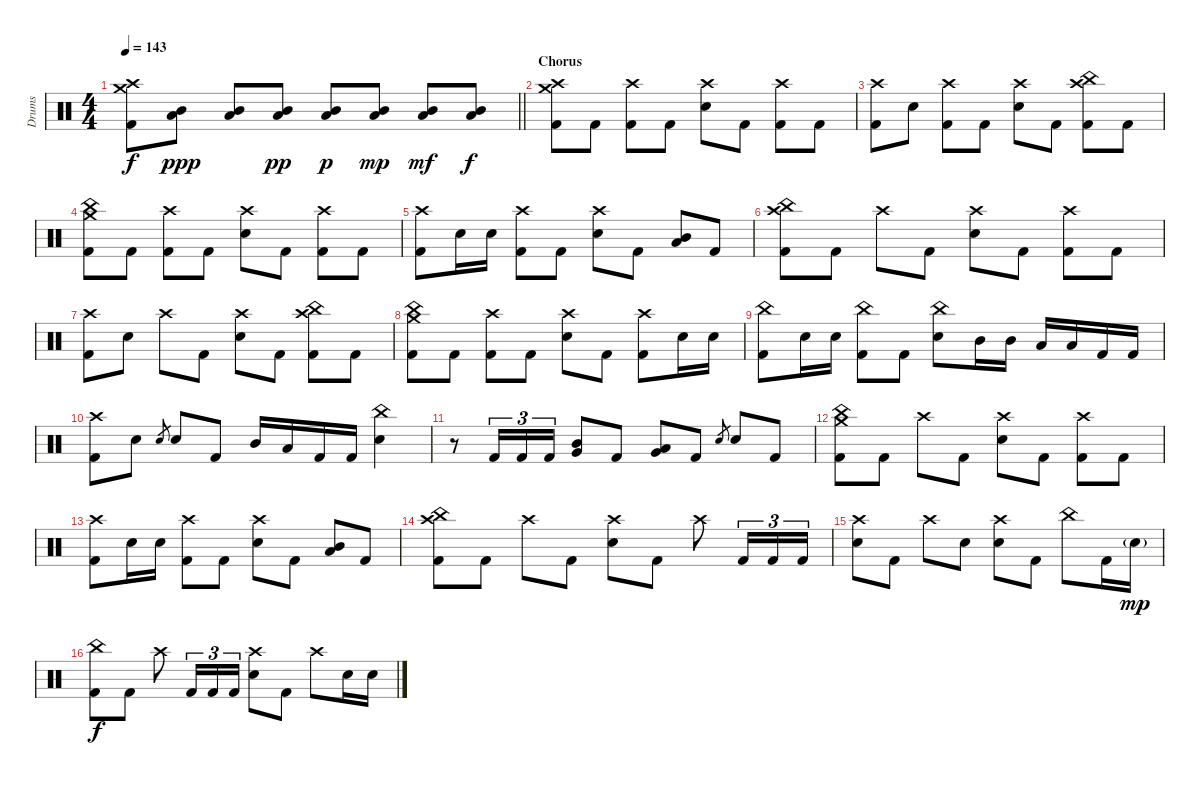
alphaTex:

\track ("Drums" "Drums") {instrument percussion}
\staff {score}
\articulation defaults
\ts (4 4)
\tempo 143
\clef neutral
\barLineRight lightlight
\ks c
("Crash high (hit)" "Crash medium (hit)" "Kick (hit) 2").8{dy f} ("Mid Tom (hit)" "Low Floor Tom (hit)").8{dy ppp} ("Mid Tom (hit)" "Low Floor Tom (hit)").8 ("Mid Tom (hit)" "Low Floor Tom (hit)").8{dy pp} ("Mid Tom (hit)" "Low Floor Tom (hit)").8{dy p} ("Mid Tom (hit)" "Low Floor Tom (hit)").8{dy mp} ("Mid Tom (hit)" "Low Floor Tom (hit)").8{dy mf} ("Mid Tom (hit)" "Low Floor Tom (hit)").8{dy f} |
\section ("" "Chorus")
("Crash high (hit)" "Crash medium (hit)" "Kick (hit) 2").8 "Kick (hit) 2".8 ("Crash high (hit)" "Kick (hit) 2").8 "Kick (hit) 2".8 ("Crash high (hit)" "Electric Snare (hit)").8 "Kick (hit) 2".8 ("Crash high (hit)" "Kick (hit) 2").8 "Kick (hit) 2".8 |
("Crash high (hit)" "Kick (hit) 2").8 "Electric Snare (hit)".8 ("Crash high (hit)" "Kick (hit) 2").8 "Kick (hit) 2".8 ("Crash high (hit)" "Electric Snare (hit)").8 "Kick (hit) 2".8 ("Crash high (hit)" "China (hit)" "Kick (hit) 2").8 "Kick (hit) 2".8 |
("Crash medium (hit)" "China (hit)" "Kick (hit) 2").8 "Kick (hit) 2".8 ("Crash high (hit)" "Kick (hit) 2").8 "Kick (hit) 2".8 ("Crash high (hit)" "Electric Snare (hit)").8 "Kick (hit) 2".8 ("Crash high (hit)" "Kick (hit) 2").8 "Kick (hit) 2".8 |
("Crash high (hit)" "Kick (hit) 2").8 "Electric Snare (hit)".16 "Electric Snare (hit)".16 ("Crash high (hit)" "Kick (hit) 2").8 "Kick (hit) 2".8 ("Crash high (hit)" "Electric Snare (hit)").8 "Kick (hit) 2".8 ("Mid Tom (hit)" "Low Floor Tom (hit)").8{bu 60} "Kick (hit) 2".8 |
("Crash high (hit)" "China (hit)" "Kick (hit) 2").8 "Kick (hit) 2".8 "Crash high (hit)".8 "Kick (hit) 2".8 ("Crash high (hit)" "Electric Snare (hit)").8 "Kick (hit) 2".8 ("Crash high (hit)" "Kick (hit) 2").8 "Kick (hit) 2".8 |
("Crash high (hit)" "Kick (hit) 2").8 "Electric Snare (hit)".8 "Crash high (hit)".8 "Kick (hit) 2".8 ("Crash high (hit)" "Electric Snare (hit)").8 "Kick (hit) 2".8 ("Crash high (hit)" "China (hit)" "Kick (hit) 2").8 "Kick (hit) 2".8 |
("Crash medium (hit)" "China (hit)" "Kick (hit) 2").8 "Kick (hit) 2".8 ("Crash high (hit)" "Kick (hit) 2").8 "Kick (hit) 2".8 ("Crash high (hit)" "Electric Snare (hit)").8 "Kick (hit) 2".8 ("Crash high (hit)" "Kick (hit) 2").8 "Electric Snare (hit)".16 "Electric Snare (hit)".16 |
("China (hit)" "Kick (hit) 2").8 "Electric Snare (hit)".16 "Electric Snare (hit)".16 ("China (hit)" "Kick (hit) 2").8 "Kick (hit) 2".8 ("China (hit)" "Electric Snare (hit)").8 "Mid Tom (hit)".16 "Mid Tom (hit)".16 "Low Floor Tom (hit)".16 "Low Floor Tom (hit)".16 "Kick (hit) 2".16 "Kick (hit) 2".16 |
("Crash high (hit)" "Kick (hit) 2").8 "Electric Snare (hit)".8 "Electric Snare (hit)".8{gr} "Electric Snare (hit)".8 "Kick (hit) 2".8 "Mid Tom (hit)".16 "Low Floor Tom (hit)".16 "Kick (hit) 2".16 "Kick (hit) 2".16 ("China (hit)" "Electric Snare (hit)").4 |
r.8 "Kick (hit) 2".16{tu (3 2)} "Kick (hit) 2".16{tu (3 2)} "Kick (hit) 2".16{tu (3 2)} ("Mid Tom (hit)" "Very Low Tom (hit)").8{bu 60} "Kick (hit) 2".8 ("Very Low Tom (hit)" "Low Floor Tom (hit)").8{bu 60} "Kick (hit) 2".8 "Electric Snare (hit)".8{gr} "Electric Snare (hit)".8 "Kick (hit) 2".8 |
("Crash medium (hit)" "China (hit)" "Kick (hit) 2").8 "Kick (hit) 2".8 "Crash high (hit)".8 "Kick (hit) 2".8 ("Crash high (hit)" "Electric Snare (hit)").8 "Kick (hit) 2".8 ("Crash high (hit)" "Kick (hit) 2").8 "Kick (hit) 2".8 |
("Crash high (hit)" "Kick (hit) 2").8 "Electric Snare (hit)".16 "Electric Snare (hit)".16 ("Crash high (hit)" "Kick (hit) 2").8 "Kick (hit) 2".8 ("Crash high (hit)" "Electric Snare (hit)").8 "Kick (hit) 2".8 ("Mid Tom (hit)" "Low Floor Tom (hit)").8{bu 60} "Kick (hit) 2".8 |
("Crash high (hit)" "China (hit)" "Kick (hit) 2").8 "Kick (hit) 2".8 "Crash high (hit)".8 "Kick (hit) 2".8 ("Crash high (hit)" "Electric Snare (hit)").8 "Kick (hit) 2".8 "Crash high (hit)".8 "Kick (hit) 2".16{tu (3 2)} "Kick (hit) 2".16{tu (3 2)} "Kick (hit) 2".16{tu (3 2)} |
("Crash high (hit)" "Electric Snare (hit)").8 "Kick (hit) 2".8 "Crash high (hit)".8 "Electric Snare (hit)".8 ("Crash high (hit)" "Electric Snare (hit)").8 "Kick (hit) 2".8 "China (hit)".8 "Kick (hit) 2".16 "Electric Snare (hit)"{g}.16{dy mp} |
("China (hit)" "Kick (hit) 2").8{dy f} "Kick (hit) 2".8 "Crash high (hit)".8 "Kick (hit) 2".16{tu (3 2)} "Kick (hit) 2".16{tu (3 2)} "Kick (hit) 2".16{tu (3 2)} ("Crash high (hit)" "Electric Snare (hit)").8 "Kick (hit) 2".8 "Crash high (hit)".8 "Electric Snare (hit)".16 "Electric Snare (hit)".16
